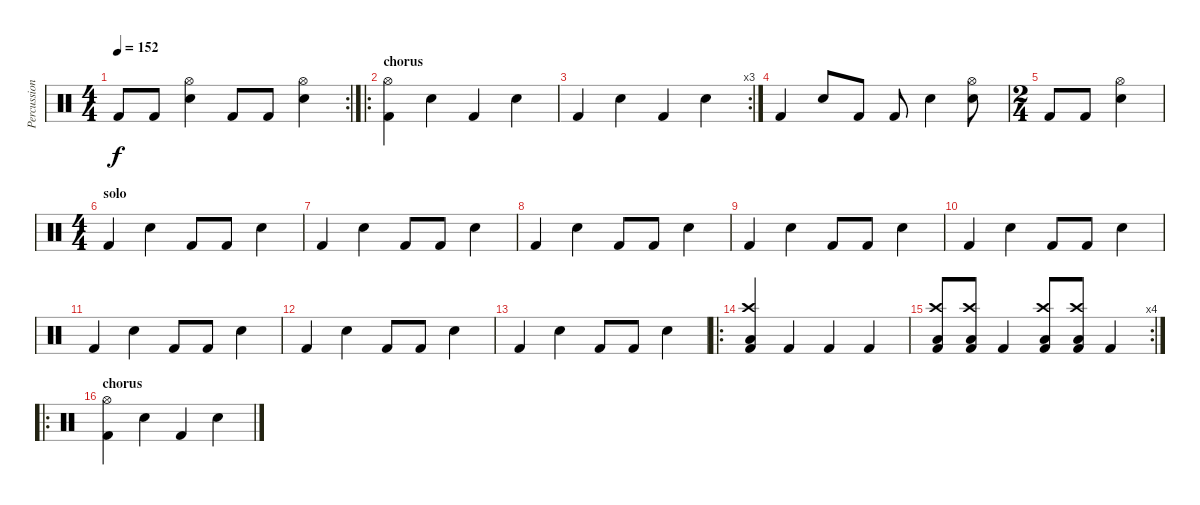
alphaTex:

\track ("Percussion" "Percussion") {instrument percussion}
\staff {score}
\articulation defaults
\rc 2
\ts (4 4)
\tempo 152
\clef neutral
\ks c "Kick (hit) 2".8{dy f} "Kick (hit) 2".8
("Hi-Hat (open)" "Electric Snare (hit)").4 "Kick (hit) 2".8 "Kick (hit) 2".8 ("Hi-Hat (open)" "Electric Snare (hit)").4 |
\ro
\section ("" "chorus")
("Hi-Hat (open)" "Kick (hit) 2").4 "Electric Snare (hit)".4 "Kick (hit) 2".4 "Electric Snare (hit)".4 |
\rc 3 "Kick (hit) 2".4 "Electric Snare (hit)".4 "Kick (hit) 2".4 "Electric Snare (hit)".4
|
"Kick (hit) 2".4 "Electric Snare (hit)".8 "Kick (hit) 2".8 "Kick (hit) 2".8 "Electric Snare (hit)".4 ("Hi-Hat (open)" "Electric Snare (hit)").8 |
\ts (2 4)
"Kick (hit) 2".8 "Kick (hit) 2".8 ("Hi-Hat (open)" "Electric Snare (hit)").4 |
\ts (4 4)
\section ("" "solo")
"Kick (hit) 2".4 "Electric Snare (hit)".4 "Kick (hit) 2".8 "Kick (hit) 2".8 "Electric Snare (hit)".4 |
"Kick (hit) 2".4 "Electric Snare (hit)".4 "Kick (hit) 2".8 "Kick (hit) 2".8 "Electric Snare (hit)".4 |
"Kick (hit) 2".4 "Electric Snare (hit)".4 "Kick (hit) 2".8 "Kick (hit) 2".8 "Electric Snare (hit)".4 |
"Kick (hit) 2".4 "Electric Snare (hit)".4 "Kick (hit) 2".8 "Kick (hit) 2".8 "Electric Snare (hit)".4 |
"Kick (hit) 2".4 "Electric Snare (hit)".4 "Kick (hit) 2".8 "Kick (hit) 2".8 "Electric Snare (hit)".4 |
"Kick (hit) 2".4 "Electric Snare (hit)".4 "Kick (hit) 2".8 "Kick (hit) 2".8 "Electric Snare (hit)".4 |
"Kick (hit) 2".4 "Electric Snare (hit)".4 "Kick (hit) 2".8 "Kick (hit) 2".8 "Electric Snare (hit)".4 |
"Kick (hit) 2".4 "Electric Snare (hit)".4 "Kick (hit) 2".8 "Kick (hit) 2".8 "Electric Snare (hit)".4 |
\ro
("Crash high (hit)" "Low Tom (hit)" "Kick (hit) 2").4 "Kick (hit) 2".4 "Kick (hit) 2".4 "Kick (hit) 2".4 |
\rc 4
("Crash high (hit)" "Low Tom (hit)" "Kick (hit) 2").8 ("Crash high (hit)" "Low Tom (hit)" "Kick (hit) 2").8 "Kick (hit) 2".4 ("Crash high (hit)" "Low Tom (hit)" "Kick (hit) 2").8 ("Crash high (hit)" "Low Tom (hit)" "Kick (hit) 2").8 "Kick (hit) 2".4 |
\ro
\section ("" "chorus")
("Hi-Hat (open)" "Kick (hit) 2").4 "Electric Snare (hit)".4 "Kick (hit) 2".4 "Electric Snare (hit)".4
